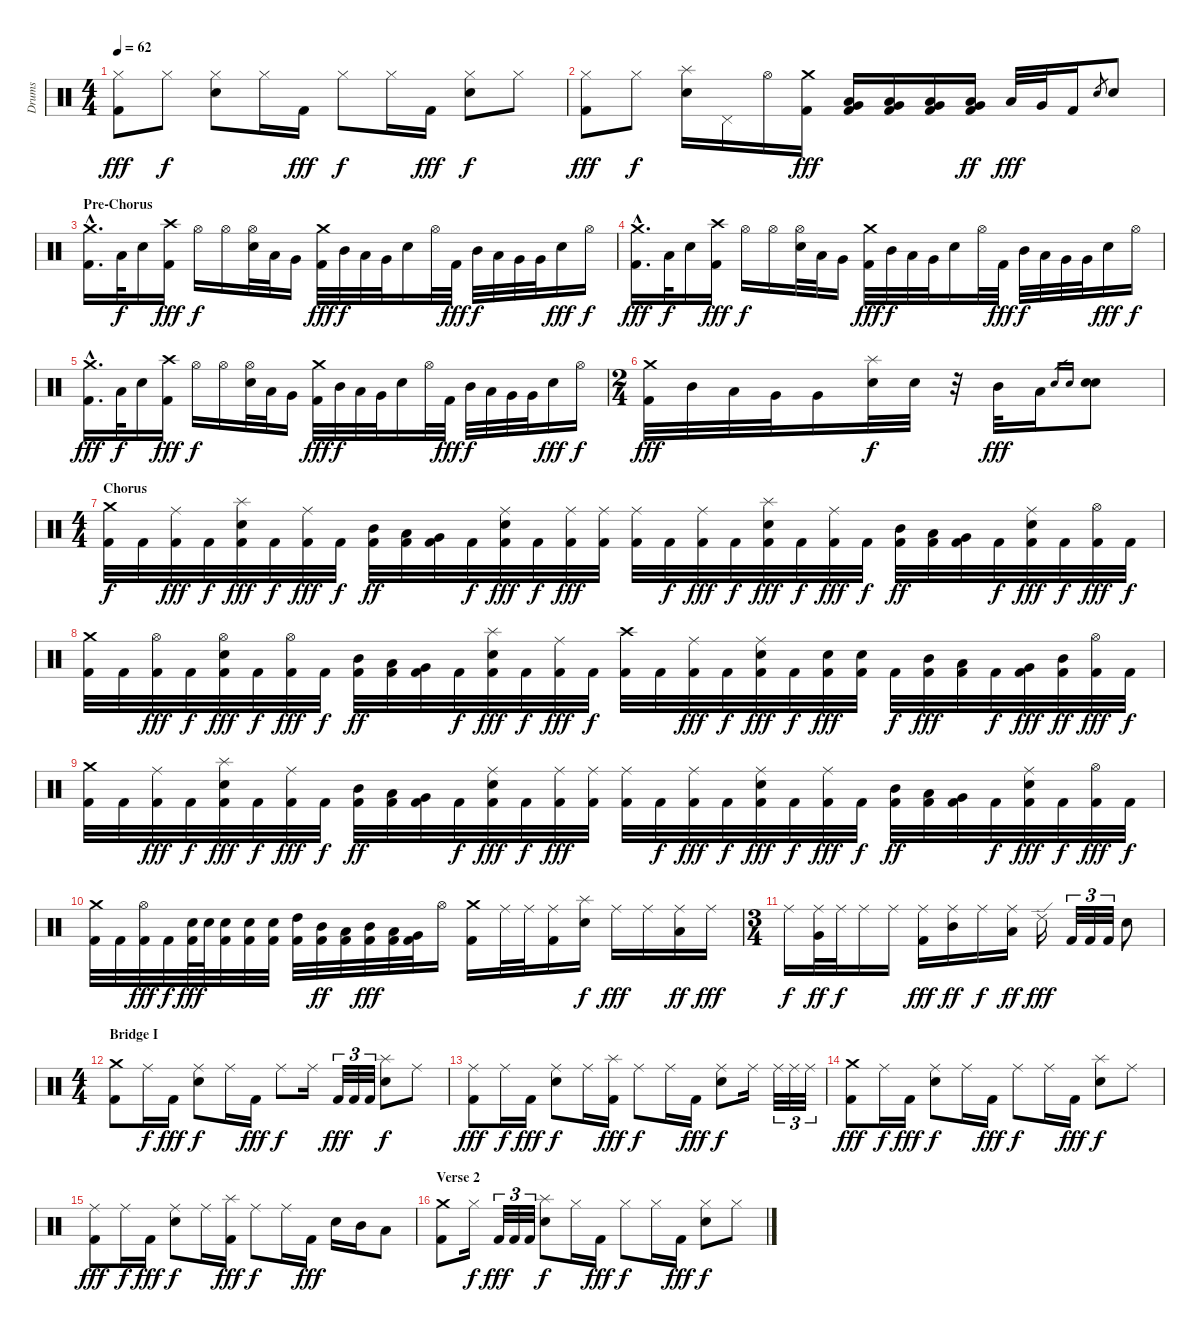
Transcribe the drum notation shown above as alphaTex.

\track ("Drums" "Drums") {instrument percussion}
\staff {score}
\articulation defaults
\ts (4 4)
\tempo 62
\clef neutral
\ks c
("Hi-Hat (closed)" "Kick (hit) 2").8{dy fff} "Hi-Hat (closed)".8{dy f} ("Hi-Hat (closed)" "Electric Snare (hit)").8 "Hi-Hat (closed)".16 "Kick (hit) 2".16{dy fff} "Hi-Hat (closed)".8{dy f} "Hi-Hat (closed)".16 "Kick (hit) 2".16{dy fff} ("Hi-Hat (closed)" "Electric Snare (hit)").8{dy f} "Hi-Hat (closed)".8 |
("Hi-Hat (closed)" "Kick (hit) 2").8{dy fff} "Hi-Hat (closed)".8{dy f} ("Splash (hit)" "Electric Snare (hit)").16 "Pedal Hi-Hat (hit)".16 "Hi-Hat (open)".16 ("Crash medium (hit)" "Kick (hit) 2").16{dy fff} ("Very Low Tom (hit)" "Low Tom (hit)" "Kick (hit) 2").16 ("Very Low Tom (hit)" "Low Tom (hit)" "Kick (hit) 2").16 ("Very Low Tom (hit)" "Low Tom (hit)" "Kick (hit) 2").16 ("Very Low Tom (hit)" "Low Tom (hit)" "Kick (hit) 2").16{dy ff} "Low Tom (hit)".32{dy fff} "Very Low Tom (hit)".32 "Kick (hit) 2".16 "Electric Snare (hit)".8{gr} "Electric Snare (hit)".8 |
\section ("" "Pre-Chorus")
("Crash medium (hit)"{hac} "Kick (hit) 2"{hac}).16{d} "Low Tom (hit)".32{dy f} "Electric Snare (hit)".16 ("Crash high (hit)" "Kick (hit) 2").16{dy fff} "Hi-Hat (open)".16{dy f} "Hi-Hat (open)".16 ("Hi-Hat (open)" "Electric Snare (hit)").32 "Low Tom (hit)".32 "Very Low Tom (hit)".16 ("Crash medium (hit)" "Kick (hit) 2").32{dy fff} "Mid Tom (hit)".32{dy f} "Low Tom (hit)".32 "Very Low Tom (hit)".32 "Electric Snare (hit)".16 "Hi-Hat (open)".32 "Kick (hit) 2".32{dy fff} "Mid Tom (hit)".32{dy f} "Low Tom (hit)".32 "Very Low Tom (hit)".32 "Very Low Tom (hit)".32 "Electric Snare (hit)".16{dy fff} "Hi-Hat (open)".16{dy f} |
("Crash medium (hit)"{hac} "Kick (hit) 2"{hac}).16{d dy fff} "Low Tom (hit)".32{dy f} "Electric Snare (hit)".16 ("Crash high (hit)" "Kick (hit) 2").16{dy fff} "Hi-Hat (open)".16{dy f} "Hi-Hat (open)".16 ("Hi-Hat (open)" "Electric Snare (hit)").32 "Low Tom (hit)".32 "Very Low Tom (hit)".16 ("Crash medium (hit)" "Kick (hit) 2").32{dy fff} "Mid Tom (hit)".32{dy f} "Low Tom (hit)".32 "Very Low Tom (hit)".32 "Electric Snare (hit)".16 "Hi-Hat (open)".32 "Kick (hit) 2".32{dy fff} "Mid Tom (hit)".32{dy f} "Low Tom (hit)".32 "Very Low Tom (hit)".32 "Very Low Tom (hit)".32 "Electric Snare (hit)".16{dy fff} "Hi-Hat (open)".16{dy f} |
("Crash medium (hit)"{hac} "Kick (hit) 2"{hac}).16{d dy fff} "Low Tom (hit)".32{dy f} "Electric Snare (hit)".16 ("Crash high (hit)" "Kick (hit) 2").16{dy fff} "Hi-Hat (open)".16{dy f} "Hi-Hat (open)".16 ("Hi-Hat (open)" "Electric Snare (hit)").32 "Low Tom (hit)".32 "Very Low Tom (hit)".16 ("Crash medium (hit)" "Kick (hit) 2").32{dy fff} "Mid Tom (hit)".32{dy f} "Low Tom (hit)".32 "Very Low Tom (hit)".32 "Electric Snare (hit)".16 "Hi-Hat (open)".32 "Kick (hit) 2".32{dy fff} "Mid Tom (hit)".32{dy f} "Low Tom (hit)".32 "Very Low Tom (hit)".32 "Very Low Tom (hit)".32 "Electric Snare (hit)".16{dy fff} "Hi-Hat (open)".16{dy f} |
\ts (2 4)
("Crash medium (hit)" "Kick (hit) 2").32{dy fff} "Mid Tom (hit)".32 "Low Tom (hit)".32 "Very Low Tom (hit)".32 "Very Low Tom (hit)".16 ("Splash (hit)" "Electric Snare (hit)").32{dy f} "Electric Snare (hit)".32 r.32 "Mid Tom (hit)".32{dy fff} "Low Tom (hit)".16 "Electric Snare (hit)".16{gr} "Electric Snare (hit)".16{gr} ("Electric Snare (hit)" "Electric Snare (hit)").8 |
\ts (4 4)
\section ("" "Chorus")
("Crash medium (hit)" "Kick (hit) 2").32{dy f} "Kick (hit) 2".32 ("Ride (middle)" "Kick (hit) 2").32{dy fff} "Kick (hit) 2".32{dy f} ("Splash (hit)" "Electric Snare (hit)" "Kick (hit) 2").32{dy fff} "Kick (hit) 2".32{dy f} ("Ride (middle)" "Kick (hit) 2").32{dy fff} "Kick (hit) 2".32{dy f} ("Mid Tom (hit)" "Kick (hit) 2").32{dy ff} ("Low Tom (hit)" "Kick (hit) 2").32 ("Very Low Tom (hit)" "Kick (hit) 2").32 "Kick (hit) 2".32{dy f} ("Ride (middle)" "Electric Snare (hit)" "Kick (hit) 2").32{dy fff} "Kick (hit) 2".32{dy f} ("Ride (middle)" "Kick (hit) 2").32{dy fff} ("Ride (middle)" "Kick (hit) 2").32 ("Ride (middle)" "Kick (hit) 2").32 "Kick (hit) 2".32{dy f} ("Ride (middle)" "Kick (hit) 2").32{dy fff} "Kick (hit) 2".32{dy f} ("Splash (hit)" "Electric Snare (hit)" "Kick (hit) 2").32{dy fff} "Kick (hit) 2".32{dy f} ("Ride (middle)" "Kick (hit) 2").32{dy fff} "Kick (hit) 2".32{dy f} ("Mid Tom (hit)" "Kick (hit) 2").32{dy ff} ("Low Tom (hit)" "Kick (hit) 2").32 ("Very Low Tom (hit)" "Kick (hit) 2").32 "Kick (hit) 2".32{dy f} ("Ride (middle)" "Electric Snare (hit)" "Kick (hit) 2").32{dy fff} "Kick (hit) 2".32{dy f} ("Hi-Hat (open)" "Kick (hit) 2").32{dy fff} "Kick (hit) 2".32{dy f} |
("Crash medium (hit)" "Kick (hit) 2").32 "Kick (hit) 2".32 ("Hi-Hat (open)" "Kick (hit) 2").32{dy fff} "Kick (hit) 2".32{dy f} ("Hi-Hat (open)" "Electric Snare (hit)" "Kick (hit) 2").32{dy fff} "Kick (hit) 2".32{dy f} ("Hi-Hat (open)" "Kick (hit) 2").32{dy fff} "Kick (hit) 2".32{dy f} ("Mid Tom (hit)" "Kick (hit) 2").32{dy ff} ("Low Tom (hit)" "Kick (hit) 2").32 ("Very Low Tom (hit)" "Kick (hit) 2").32 "Kick (hit) 2".32{dy f} ("Splash (hit)" "Electric Snare (hit)" "Kick (hit) 2").32{dy fff} "Kick (hit) 2".32{dy f} ("Ride (middle)" "Kick (hit) 2").32{dy fff} "Kick (hit) 2".32{dy f} ("Crash high (hit)" "Kick (hit) 2").32 "Kick (hit) 2".32 ("Ride (middle)" "Kick (hit) 2").32{dy fff} "Kick (hit) 2".32{dy f} ("Ride (middle)" "Electric Snare (hit)" "Kick (hit) 2").32{dy fff} "Kick (hit) 2".32{dy f} ("Electric Snare (hit)" "Kick (hit) 2").32{dy fff} ("Electric Snare (hit)" "Kick (hit) 2").32 "Kick (hit) 2".32{dy f} ("Mid Tom (hit)" "Kick (hit) 2").32{dy fff} ("Low Tom (hit)" "Kick (hit) 2").32 "Kick (hit) 2".32{dy f} ("Very Low Tom (hit)" "Kick (hit) 2").32{dy fff} ("Mid Tom (hit)" "Kick (hit) 2").32{dy ff} ("Hi-Hat (open)" "Kick (hit) 2").32{dy fff} "Kick (hit) 2".32{dy f} |
("Crash medium (hit)" "Kick (hit) 2").32 "Kick (hit) 2".32 ("Ride (middle)" "Kick (hit) 2").32{dy fff} "Kick (hit) 2".32{dy f} ("Splash (hit)" "Electric Snare (hit)" "Kick (hit) 2").32{dy fff} "Kick (hit) 2".32{dy f} ("Ride (middle)" "Kick (hit) 2").32{dy fff} "Kick (hit) 2".32{dy f} ("Mid Tom (hit)" "Kick (hit) 2").32{dy ff} ("Low Tom (hit)" "Kick (hit) 2").32 ("Very Low Tom (hit)" "Kick (hit) 2").32 "Kick (hit) 2".32{dy f} ("Ride (middle)" "Electric Snare (hit)" "Kick (hit) 2").32{dy fff} "Kick (hit) 2".32{dy f} ("Ride (middle)" "Kick (hit) 2").32{dy fff} ("Ride (middle)" "Kick (hit) 2").32 ("Ride (middle)" "Kick (hit) 2").32 "Kick (hit) 2".32{dy f} ("Ride (middle)" "Kick (hit) 2").32{dy fff} "Kick (hit) 2".32{dy f} ("Ride (middle)" "Electric Snare (hit)" "Kick (hit) 2").32{dy fff} "Kick (hit) 2".32{dy f} ("Ride (middle)" "Kick (hit) 2").32{dy fff} "Kick (hit) 2".32{dy f} ("Mid Tom (hit)" "Kick (hit) 2").32{dy ff} ("Low Tom (hit)" "Kick (hit) 2").32 ("Very Low Tom (hit)" "Kick (hit) 2").32 "Kick (hit) 2".32{dy f} ("Ride (middle)" "Electric Snare (hit)" "Kick (hit) 2").32{dy fff} "Kick (hit) 2".32{dy f} ("Hi-Hat (open)" "Kick (hit) 2").32{dy fff} "Kick (hit) 2".32{dy f} |
("Crash medium (hit)" "Kick (hit) 2").32 "Kick (hit) 2".32 ("Hi-Hat (open)" "Kick (hit) 2").32{dy fff} "Kick (hit) 2".32{dy f} ("Electric Snare (hit)" "Kick (hit) 2").64{dy fff} "Electric Snare (hit)".64 ("Electric Snare (hit)" "Kick (hit) 2").32 ("Electric Snare (hit)" "Kick (hit) 2").32 ("Electric Snare (hit)" "Kick (hit) 2").32 ("High Tom (hit)" "Kick (hit) 2").32 ("Mid Tom (hit)" "Kick (hit) 2").32{dy ff} ("Low Tom (hit)" "Kick (hit) 2").32 ("Mid Tom (hit)" "Kick (hit) 2").32{dy fff} ("Low Tom (hit)" "Kick (hit) 2").32 ("Very Low Tom (hit)" "Kick (hit) 2").32 "Hi-Hat (open)".16 ("Crash medium (hit)" "Kick (hit) 2").16 "Ride (middle)".32 "Ride (middle)".32 ("Ride (middle)" "Kick (hit) 2").16 ("Splash (hit)" "Electric Snare (hit)").16{dy f} "Ride (middle)".16{dy fff} "Ride (middle)".16 ("Ride (middle)" "Low Tom (hit)").16{dy ff} "Ride (middle)".16{dy fff} |
\ts (3 4)
"Ride (middle)".16{dy f} ("Ride (middle)" "Very Low Tom (hit)").32{dy ff} "Ride (middle)".32{dy f} "Ride (middle)".16 "Ride (middle)".16 ("Ride (middle)" "Kick (hit) 2").16{dy fff} ("Ride (middle)" "Mid Tom (hit)").16{dy ff} "Ride (middle)".16{dy f} ("Ride (middle)" "Low Tom (hit)").16{dy ff} "Ride (edge) 2".16{dy fff} "Kick (hit) 2".32{tu (3 2)} "Kick (hit) 2".32{tu (3 2)} "Kick (hit) 2".32{tu (3 2)} "Electric Snare (hit)".8 |
\ts (4 4)
\section ("" "Bridge I")
("Crash medium (hit)" "Kick (hit) 2").8 "Ride (middle)".16{dy f} "Kick (hit) 2".16{dy fff} ("Ride (middle)" "Electric Snare (hit)").8{dy f} "Ride (middle)".16 "Kick (hit) 2".16{dy fff} "Ride (middle)".8{dy f} "Ride (middle)".16 "Kick (hit) 2".32{tu (3 2) dy fff} "Kick (hit) 2".32{tu (3 2)} "Kick (hit) 2".32{tu (3 2)} ("Splash (hit)" "Electric Snare (hit)").8{dy f} "Ride (middle)".8 |
("Ride (middle)" "Kick (hit) 2").8{dy fff} "Ride (middle)".16{dy f} "Kick (hit) 2".16{dy fff} ("Ride (middle)" "Electric Snare (hit)").8{dy f} "Ride (middle)".16 ("Splash (hit)" "Kick (hit) 2").16{dy fff} "Ride (middle)".8{dy f} "Ride (middle)".16 "Kick (hit) 2".16{dy fff} ("Ride (middle)" "Electric Snare (hit)").8{dy f} "Ride (middle)".16 "Ride (middle)".32{tu (3 2)} "Ride (middle)".32{tu (3 2)} "Ride (middle)".32{tu (3 2)} |
("Crash medium (hit)" "Kick (hit) 2").8{dy fff} "Ride (middle)".16{dy f} "Kick (hit) 2".16{dy fff} ("Ride (middle)" "Electric Snare (hit)").8{dy f} "Ride (middle)".16 "Kick (hit) 2".16{dy fff} "Ride (middle)".8{dy f} "Ride (middle)".16 "Kick (hit) 2".16{dy fff} ("Splash (hit)" "Electric Snare (hit)").8{dy f} "Ride (middle)".8 |
("Ride (middle)" "Kick (hit) 2").8{dy fff} "Ride (middle)".16{dy f} "Kick (hit) 2".16{dy fff} ("Ride (middle)" "Electric Snare (hit)").8{dy f} "Ride (middle)".16 ("Splash (hit)" "Kick (hit) 2").16{dy fff} "Ride (middle)".8{dy f} "Ride (middle)".16 "Kick (hit) 2".16{dy fff} "Electric Snare (hit)".16 "Mid Tom (hit)".16 "Low Tom (hit)".8 |
\section ("" "Verse 2")
("Crash medium (hit)" "Kick (hit) 2").8 "Hi-Hat (closed)".16{dy f} "Kick (hit) 2".32{tu (3 2) dy fff} "Kick (hit) 2".32{tu (3 2)} "Kick (hit) 2".32{tu (3 2)} ("Splash (hit)" "Electric Snare (hit)").8{dy f} "Hi-Hat (closed)".16 "Kick (hit) 2".16{dy fff} "Hi-Hat (closed)".8{dy f} "Hi-Hat (closed)".16 "Kick (hit) 2".16{dy fff} ("Hi-Hat (closed)" "Electric Snare (hit)").8{dy f} "Hi-Hat (closed)".8
